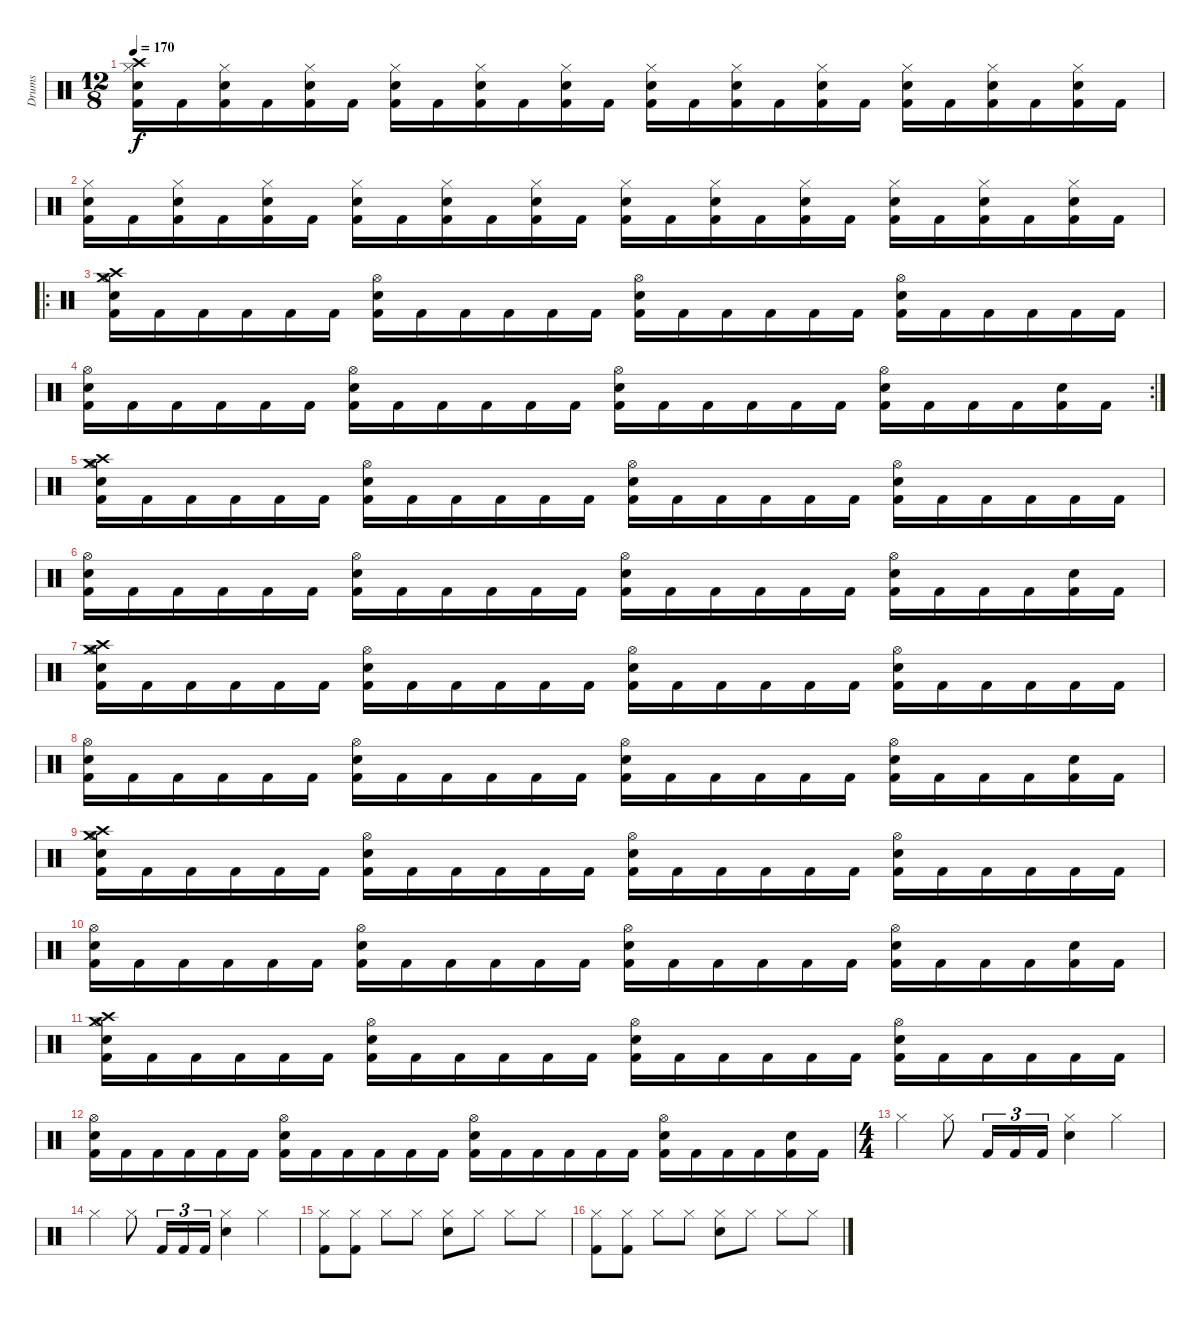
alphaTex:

\track ("Drums" "Drums") {instrument percussion}
\staff {score}
\articulation defaults
\ts (12 8)
\tempo 170
\clef neutral
\ks c
("Kick (hit) 2" "Electric Snare (hit)" "Hi-Hat (closed)" "Crash high (hit)").16{dy f} "Kick (hit) 2".16 ("Kick (hit) 2" "Electric Snare (hit)" "Hi-Hat (closed)").16 "Kick (hit) 2".16 ("Kick (hit) 2" "Electric Snare (hit)" "Hi-Hat (closed)").16 "Kick (hit) 2".16 ("Kick (hit) 2" "Electric Snare (hit)" "Hi-Hat (closed)").16 "Kick (hit) 2".16 ("Kick (hit) 2" "Electric Snare (hit)" "Hi-Hat (closed)").16 "Kick (hit) 2".16 ("Kick (hit) 2" "Electric Snare (hit)" "Hi-Hat (closed)").16 "Kick (hit) 2".16 ("Kick (hit) 2" "Electric Snare (hit)" "Hi-Hat (closed)").16 "Kick (hit) 2".16 ("Kick (hit) 2" "Electric Snare (hit)" "Hi-Hat (closed)").16 "Kick (hit) 2".16 ("Kick (hit) 2" "Electric Snare (hit)" "Hi-Hat (closed)").16 "Kick (hit) 2".16 ("Kick (hit) 2" "Electric Snare (hit)" "Hi-Hat (closed)").16 "Kick (hit) 2".16 ("Kick (hit) 2" "Electric Snare (hit)" "Hi-Hat (closed)").16 "Kick (hit) 2".16 ("Kick (hit) 2" "Electric Snare (hit)" "Hi-Hat (closed)").16 "Kick (hit) 2".16 |
("Kick (hit) 2" "Electric Snare (hit)" "Hi-Hat (closed)").16 "Kick (hit) 2".16 ("Kick (hit) 2" "Electric Snare (hit)" "Hi-Hat (closed)").16 "Kick (hit) 2".16 ("Kick (hit) 2" "Electric Snare (hit)" "Hi-Hat (closed)").16 "Kick (hit) 2".16 ("Kick (hit) 2" "Electric Snare (hit)" "Hi-Hat (closed)").16 "Kick (hit) 2".16 ("Kick (hit) 2" "Electric Snare (hit)" "Hi-Hat (closed)").16 "Kick (hit) 2".16 ("Kick (hit) 2" "Electric Snare (hit)" "Hi-Hat (closed)").16 "Kick (hit) 2".16 ("Kick (hit) 2" "Electric Snare (hit)" "Hi-Hat (closed)").16 "Kick (hit) 2".16 ("Kick (hit) 2" "Electric Snare (hit)" "Hi-Hat (closed)").16 "Kick (hit) 2".16 ("Kick (hit) 2" "Electric Snare (hit)" "Hi-Hat (closed)").16 "Kick (hit) 2".16 ("Kick (hit) 2" "Electric Snare (hit)" "Hi-Hat (closed)").16 "Kick (hit) 2".16 ("Kick (hit) 2" "Electric Snare (hit)" "Hi-Hat (closed)").16 "Kick (hit) 2".16 ("Kick (hit) 2" "Electric Snare (hit)" "Hi-Hat (closed)").16 "Kick (hit) 2".16 |
\ro
("Kick (hit) 2" "Electric Snare (hit)" "Crash medium (hit)" "Hi-Hat (open)" "Crash high (hit)").16 "Kick (hit) 2".16 "Kick (hit) 2".16 "Kick (hit) 2".16 "Kick (hit) 2".16 "Kick (hit) 2".16 ("Kick (hit) 2" "Electric Snare (hit)" "Hi-Hat (open)").16 "Kick (hit) 2".16 "Kick (hit) 2".16 "Kick (hit) 2".16 "Kick (hit) 2".16 "Kick (hit) 2".16 ("Kick (hit) 2" "Electric Snare (hit)" "Hi-Hat (open)").16 "Kick (hit) 2".16 "Kick (hit) 2".16 "Kick (hit) 2".16 "Kick (hit) 2".16 "Kick (hit) 2".16 ("Kick (hit) 2" "Electric Snare (hit)" "Hi-Hat (open)").16 "Kick (hit) 2".16 "Kick (hit) 2".16 "Kick (hit) 2".16 "Kick (hit) 2".16 "Kick (hit) 2".16 |
\rc 2
("Kick (hit) 2" "Electric Snare (hit)" "Hi-Hat (open)").16 "Kick (hit) 2".16 "Kick (hit) 2".16 "Kick (hit) 2".16 "Kick (hit) 2".16 "Kick (hit) 2".16 ("Kick (hit) 2" "Electric Snare (hit)" "Hi-Hat (open)").16 "Kick (hit) 2".16 "Kick (hit) 2".16 "Kick (hit) 2".16 "Kick (hit) 2".16 "Kick (hit) 2".16 ("Kick (hit) 2" "Electric Snare (hit)" "Hi-Hat (open)").16 "Kick (hit) 2".16 "Kick (hit) 2".16 "Kick (hit) 2".16 "Kick (hit) 2".16 "Kick (hit) 2".16 ("Kick (hit) 2" "Electric Snare (hit)" "Hi-Hat (open)").16 "Kick (hit) 2".16 "Kick (hit) 2".16 "Kick (hit) 2".16 ("Kick (hit) 2" "Electric Snare (hit)").16 "Kick (hit) 2".16 |
("Kick (hit) 2" "Electric Snare (hit)" "Crash medium (hit)" "Hi-Hat (open)" "Crash high (hit)").16 "Kick (hit) 2".16 "Kick (hit) 2".16 "Kick (hit) 2".16 "Kick (hit) 2".16 "Kick (hit) 2".16 ("Kick (hit) 2" "Electric Snare (hit)" "Hi-Hat (open)").16 "Kick (hit) 2".16 "Kick (hit) 2".16 "Kick (hit) 2".16 "Kick (hit) 2".16 "Kick (hit) 2".16 ("Kick (hit) 2" "Electric Snare (hit)" "Hi-Hat (open)").16 "Kick (hit) 2".16 "Kick (hit) 2".16 "Kick (hit) 2".16 "Kick (hit) 2".16 "Kick (hit) 2".16 ("Kick (hit) 2" "Electric Snare (hit)" "Hi-Hat (open)").16 "Kick (hit) 2".16 "Kick (hit) 2".16 "Kick (hit) 2".16 "Kick (hit) 2".16 "Kick (hit) 2".16 |
("Kick (hit) 2" "Electric Snare (hit)" "Hi-Hat (open)").16 "Kick (hit) 2".16 "Kick (hit) 2".16 "Kick (hit) 2".16 "Kick (hit) 2".16 "Kick (hit) 2".16 ("Kick (hit) 2" "Electric Snare (hit)" "Hi-Hat (open)").16 "Kick (hit) 2".16 "Kick (hit) 2".16 "Kick (hit) 2".16 "Kick (hit) 2".16 "Kick (hit) 2".16 ("Kick (hit) 2" "Electric Snare (hit)" "Hi-Hat (open)").16 "Kick (hit) 2".16 "Kick (hit) 2".16 "Kick (hit) 2".16 "Kick (hit) 2".16 "Kick (hit) 2".16 ("Kick (hit) 2" "Electric Snare (hit)" "Hi-Hat (open)").16 "Kick (hit) 2".16 "Kick (hit) 2".16 "Kick (hit) 2".16 ("Kick (hit) 2" "Electric Snare (hit)").16 "Kick (hit) 2".16 |
("Kick (hit) 2" "Electric Snare (hit)" "Crash medium (hit)" "Hi-Hat (open)" "Crash high (hit)").16 "Kick (hit) 2".16 "Kick (hit) 2".16 "Kick (hit) 2".16 "Kick (hit) 2".16 "Kick (hit) 2".16 ("Kick (hit) 2" "Electric Snare (hit)" "Hi-Hat (open)").16 "Kick (hit) 2".16 "Kick (hit) 2".16 "Kick (hit) 2".16 "Kick (hit) 2".16 "Kick (hit) 2".16 ("Kick (hit) 2" "Electric Snare (hit)" "Hi-Hat (open)").16 "Kick (hit) 2".16 "Kick (hit) 2".16 "Kick (hit) 2".16 "Kick (hit) 2".16 "Kick (hit) 2".16 ("Kick (hit) 2" "Electric Snare (hit)" "Hi-Hat (open)").16 "Kick (hit) 2".16 "Kick (hit) 2".16 "Kick (hit) 2".16 "Kick (hit) 2".16 "Kick (hit) 2".16 |
("Kick (hit) 2" "Electric Snare (hit)" "Hi-Hat (open)").16 "Kick (hit) 2".16 "Kick (hit) 2".16 "Kick (hit) 2".16 "Kick (hit) 2".16 "Kick (hit) 2".16 ("Kick (hit) 2" "Electric Snare (hit)" "Hi-Hat (open)").16 "Kick (hit) 2".16 "Kick (hit) 2".16 "Kick (hit) 2".16 "Kick (hit) 2".16 "Kick (hit) 2".16 ("Kick (hit) 2" "Electric Snare (hit)" "Hi-Hat (open)").16 "Kick (hit) 2".16 "Kick (hit) 2".16 "Kick (hit) 2".16 "Kick (hit) 2".16 "Kick (hit) 2".16 ("Kick (hit) 2" "Electric Snare (hit)" "Hi-Hat (open)").16 "Kick (hit) 2".16 "Kick (hit) 2".16 "Kick (hit) 2".16 ("Kick (hit) 2" "Electric Snare (hit)").16 "Kick (hit) 2".16 |
("Kick (hit) 2" "Electric Snare (hit)" "Crash medium (hit)" "Hi-Hat (open)" "Crash high (hit)").16 "Kick (hit) 2".16 "Kick (hit) 2".16 "Kick (hit) 2".16 "Kick (hit) 2".16 "Kick (hit) 2".16 ("Kick (hit) 2" "Electric Snare (hit)" "Hi-Hat (open)").16 "Kick (hit) 2".16 "Kick (hit) 2".16 "Kick (hit) 2".16 "Kick (hit) 2".16 "Kick (hit) 2".16 ("Kick (hit) 2" "Electric Snare (hit)" "Hi-Hat (open)").16 "Kick (hit) 2".16 "Kick (hit) 2".16 "Kick (hit) 2".16 "Kick (hit) 2".16 "Kick (hit) 2".16 ("Kick (hit) 2" "Electric Snare (hit)" "Hi-Hat (open)").16 "Kick (hit) 2".16 "Kick (hit) 2".16 "Kick (hit) 2".16 "Kick (hit) 2".16 "Kick (hit) 2".16 |
("Kick (hit) 2" "Electric Snare (hit)" "Hi-Hat (open)").16 "Kick (hit) 2".16 "Kick (hit) 2".16 "Kick (hit) 2".16 "Kick (hit) 2".16 "Kick (hit) 2".16 ("Kick (hit) 2" "Electric Snare (hit)" "Hi-Hat (open)").16 "Kick (hit) 2".16 "Kick (hit) 2".16 "Kick (hit) 2".16 "Kick (hit) 2".16 "Kick (hit) 2".16 ("Kick (hit) 2" "Electric Snare (hit)" "Hi-Hat (open)").16 "Kick (hit) 2".16 "Kick (hit) 2".16 "Kick (hit) 2".16 "Kick (hit) 2".16 "Kick (hit) 2".16 ("Kick (hit) 2" "Electric Snare (hit)" "Hi-Hat (open)").16 "Kick (hit) 2".16 "Kick (hit) 2".16 "Kick (hit) 2".16 ("Kick (hit) 2" "Electric Snare (hit)").16 "Kick (hit) 2".16 |
("Kick (hit) 2" "Electric Snare (hit)" "Crash medium (hit)" "Hi-Hat (open)" "Crash high (hit)").16 "Kick (hit) 2".16 "Kick (hit) 2".16 "Kick (hit) 2".16 "Kick (hit) 2".16 "Kick (hit) 2".16 ("Kick (hit) 2" "Electric Snare (hit)" "Hi-Hat (open)").16 "Kick (hit) 2".16 "Kick (hit) 2".16 "Kick (hit) 2".16 "Kick (hit) 2".16 "Kick (hit) 2".16 ("Kick (hit) 2" "Electric Snare (hit)" "Hi-Hat (open)").16 "Kick (hit) 2".16 "Kick (hit) 2".16 "Kick (hit) 2".16 "Kick (hit) 2".16 "Kick (hit) 2".16 ("Kick (hit) 2" "Electric Snare (hit)" "Hi-Hat (open)").16 "Kick (hit) 2".16 "Kick (hit) 2".16 "Kick (hit) 2".16 "Kick (hit) 2".16 "Kick (hit) 2".16 |
("Kick (hit) 2" "Electric Snare (hit)" "Hi-Hat (open)").16 "Kick (hit) 2".16 "Kick (hit) 2".16 "Kick (hit) 2".16 "Kick (hit) 2".16 "Kick (hit) 2".16 ("Kick (hit) 2" "Electric Snare (hit)" "Hi-Hat (open)").16 "Kick (hit) 2".16 "Kick (hit) 2".16 "Kick (hit) 2".16 "Kick (hit) 2".16 "Kick (hit) 2".16 ("Kick (hit) 2" "Electric Snare (hit)" "Hi-Hat (open)").16 "Kick (hit) 2".16 "Kick (hit) 2".16 "Kick (hit) 2".16 "Kick (hit) 2".16 "Kick (hit) 2".16 ("Kick (hit) 2" "Electric Snare (hit)" "Hi-Hat (open)").16 "Kick (hit) 2".16 "Kick (hit) 2".16 "Kick (hit) 2".16 ("Kick (hit) 2" "Electric Snare (hit)").16 "Kick (hit) 2".16 |
\ts (4 4)
"Hi-Hat (closed)".4 "Hi-Hat (closed)".8 "Kick (hit) 2".16{tu (3 2)} "Kick (hit) 2".16{tu (3 2)} "Kick (hit) 2".16{tu (3 2)} ("Electric Snare (hit)" "Hi-Hat (closed)").4 "Hi-Hat (closed)".4 |
"Hi-Hat (closed)".4 "Hi-Hat (closed)".8 "Kick (hit) 2".16{tu (3 2)} "Kick (hit) 2".16{tu (3 2)} "Kick (hit) 2".16{tu (3 2)} ("Electric Snare (hit)" "Hi-Hat (closed)").4 "Hi-Hat (closed)".4 |
("Kick (hit) 2" "Hi-Hat (closed)").8 ("Kick (hit) 2" "Hi-Hat (closed)").8 "Hi-Hat (closed)".8 "Hi-Hat (closed)".8 ("Electric Snare (hit)" "Hi-Hat (closed)").8 "Hi-Hat (closed)".8 "Hi-Hat (closed)".8 "Hi-Hat (closed)".8 |
("Kick (hit) 2" "Hi-Hat (closed)").8 ("Kick (hit) 2" "Hi-Hat (closed)").8 "Hi-Hat (closed)".8 "Hi-Hat (closed)".8 ("Electric Snare (hit)" "Hi-Hat (closed)").8 "Hi-Hat (closed)".8 "Hi-Hat (closed)".8 "Hi-Hat (closed)".8
